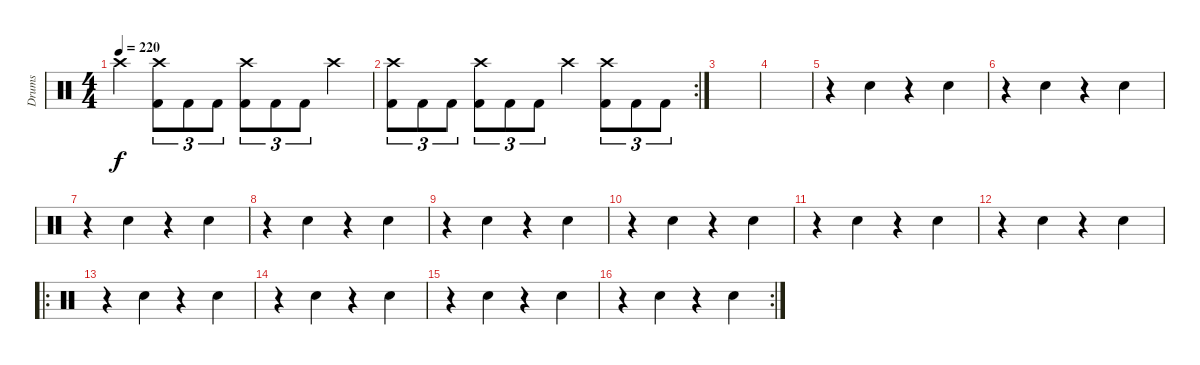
\track ("Drums" "Drums") {instrument percussion}
\staff {score}
\articulation defaults
\ts (4 4)
\tempo 220
\clef neutral
\ks c "Crash high (hit)".4{dy f}
("Kick (hit) 2" "Crash high (hit)").8{tu (3 2)} "Kick (hit) 2".8{tu (3 2)} "Kick (hit) 2".8{tu (3 2)} ("Kick (hit) 2" "Crash high (hit)").8{tu (3 2)} "Kick (hit) 2".8{tu (3 2)} "Kick (hit) 2".8{tu (3 2)} "Crash high (hit)".4 |
\rc 2
("Kick (hit) 2" "Crash high (hit)").8{tu (3 2)} "Kick (hit) 2".8{tu (3 2)} "Kick (hit) 2".8{tu (3 2)} ("Kick (hit) 2" "Crash high (hit)").8{tu (3 2)} "Kick (hit) 2".8{tu (3 2)} "Kick (hit) 2".8{tu (3 2)} "Crash high (hit)".4 ("Kick (hit) 2" "Crash high (hit)").8{tu (3 2)} "Kick (hit) 2".8{tu (3 2)} "Kick (hit) 2".8{tu (3 2)} |
|
|
r.4 "Snare (hit) 2".4 r.4 "Snare (hit) 2".4 |
r.4 "Snare (hit) 2".4 r.4 "Snare (hit) 2".4 |
r.4 "Snare (hit) 2".4 r.4 "Snare (hit) 2".4 |
r.4 "Snare (hit) 2".4 r.4 "Snare (hit) 2".4 |
r.4 "Snare (hit) 2".4 r.4 "Snare (hit) 2".4 |
r.4 "Snare (hit) 2".4 r.4 "Snare (hit) 2".4 |
r.4 "Snare (hit) 2".4 r.4 "Snare (hit) 2".4 |
r.4 "Snare (hit) 2".4 r.4 "Snare (hit) 2".4 |
\ro
r.4 "Snare (hit) 2".4 r.4 "Snare (hit) 2".4 |
r.4 "Snare (hit) 2".4 r.4 "Snare (hit) 2".4 |
r.4 "Snare (hit) 2".4 r.4 "Snare (hit) 2".4 |
\rc 2
r.4 "Snare (hit) 2".4 r.4 "Snare (hit) 2".4
